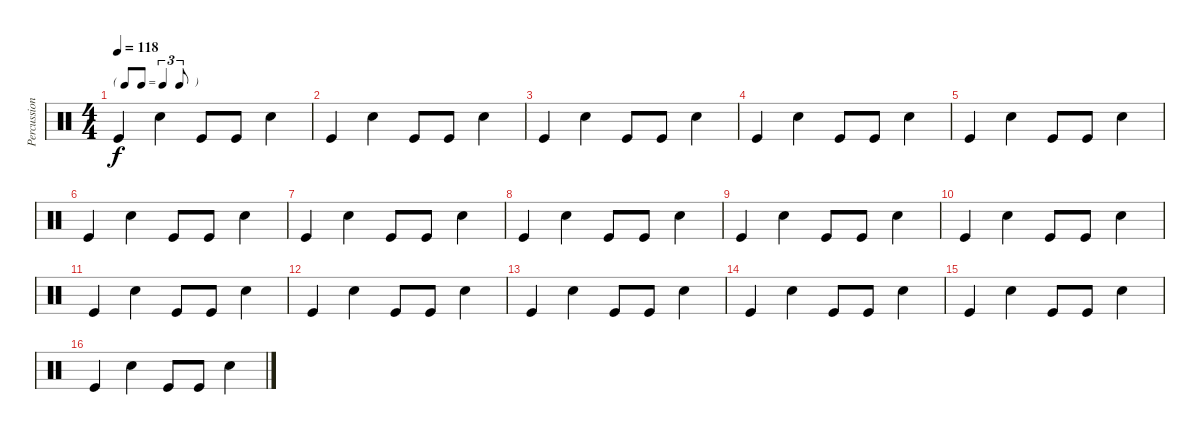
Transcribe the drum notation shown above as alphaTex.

\track ("Percussion" "Percussion") {instrument percussion}
\staff {score}
\articulation defaults
\ts (4 4)
\tf triplet8th
\tempo 118
\clef neutral
\ks c "Kick (hit)".4{dy f} "Snare (hit) 2".4 "Kick (hit)".8 "Kick (hit)".8 "Snare (hit) 2".4
|
"Kick (hit)".4 "Snare (hit) 2".4 "Kick (hit)".8 "Kick (hit)".8 "Snare (hit) 2".4 |
"Kick (hit)".4 "Snare (hit) 2".4 "Kick (hit)".8 "Kick (hit)".8 "Snare (hit) 2".4 |
"Kick (hit)".4 "Snare (hit) 2".4 "Kick (hit)".8 "Kick (hit)".8 "Snare (hit) 2".4 |
"Kick (hit)".4 "Snare (hit) 2".4 "Kick (hit)".8 "Kick (hit)".8 "Snare (hit) 2".4 |
"Kick (hit)".4 "Snare (hit) 2".4 "Kick (hit)".8 "Kick (hit)".8 "Snare (hit) 2".4 |
"Kick (hit)".4 "Snare (hit) 2".4 "Kick (hit)".8 "Kick (hit)".8 "Snare (hit) 2".4 |
"Kick (hit)".4 "Snare (hit) 2".4 "Kick (hit)".8 "Kick (hit)".8 "Snare (hit) 2".4 |
"Kick (hit)".4 "Snare (hit) 2".4 "Kick (hit)".8 "Kick (hit)".8 "Snare (hit) 2".4 |
"Kick (hit)".4 "Snare (hit) 2".4 "Kick (hit)".8 "Kick (hit)".8 "Snare (hit) 2".4 |
"Kick (hit)".4 "Snare (hit) 2".4 "Kick (hit)".8 "Kick (hit)".8 "Snare (hit) 2".4 |
"Kick (hit)".4 "Snare (hit) 2".4 "Kick (hit)".8 "Kick (hit)".8 "Snare (hit) 2".4 |
"Kick (hit)".4 "Snare (hit) 2".4 "Kick (hit)".8 "Kick (hit)".8 "Snare (hit) 2".4 |
"Kick (hit)".4 "Snare (hit) 2".4 "Kick (hit)".8 "Kick (hit)".8 "Snare (hit) 2".4 |
"Kick (hit)".4 "Snare (hit) 2".4 "Kick (hit)".8 "Kick (hit)".8 "Snare (hit) 2".4 |
"Kick (hit)".4 "Snare (hit) 2".4 "Kick (hit)".8 "Kick (hit)".8 "Snare (hit) 2".4
